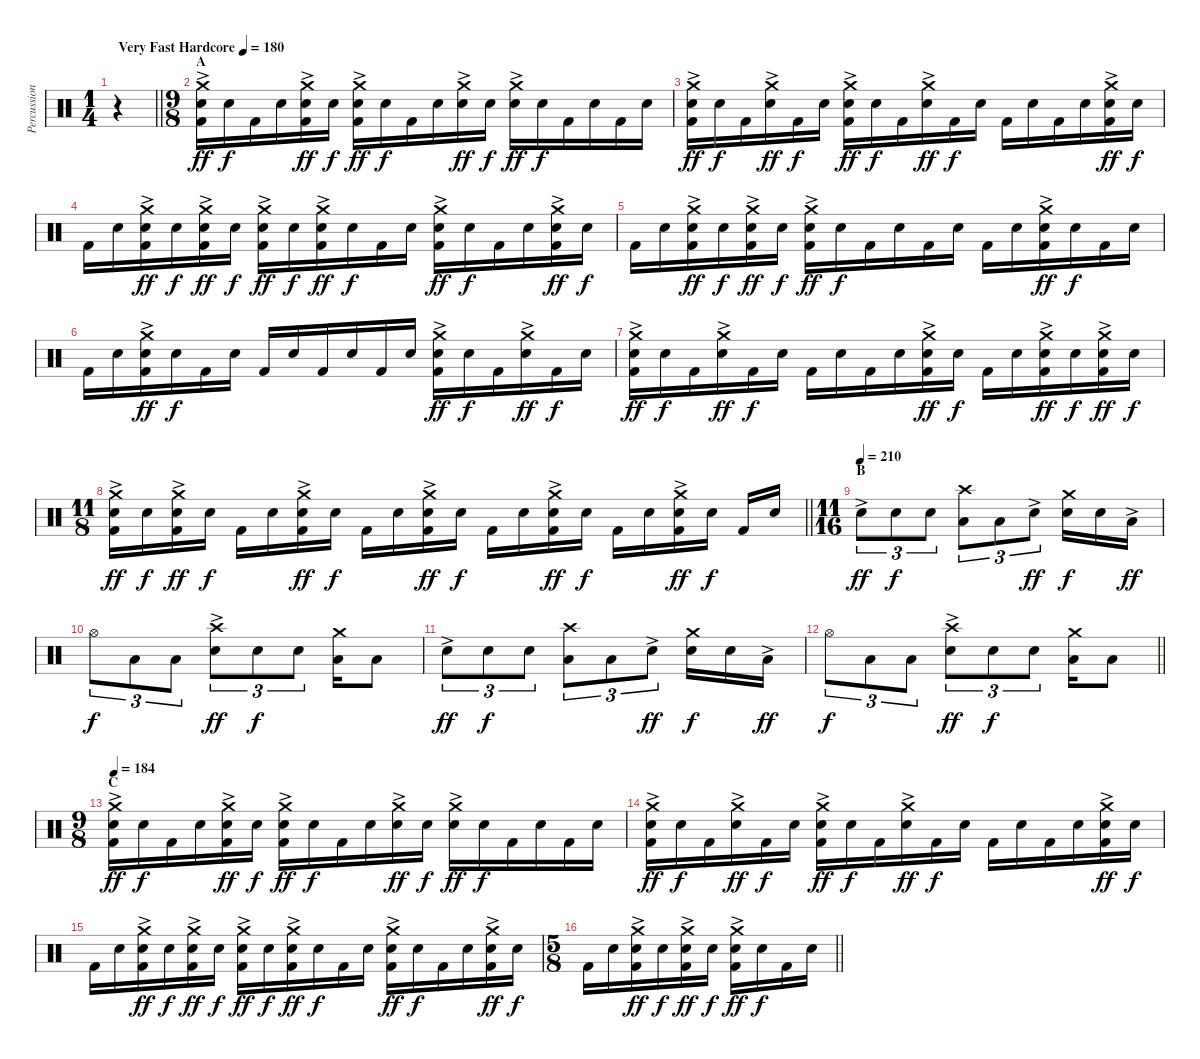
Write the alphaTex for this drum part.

\track ("Percussion" "Percussion") {instrument percussion}
\staff {score}
\articulation defaults
\ts (1 4)
\tempo (180 "Very Fast Hardcore")
\clef neutral
\barLineRight lightlight
\ks c
r.4{dy ff} |
\ts (9 8)
\section ("" "A")
("Crash medium (hit)" "Electric Snare (hit)"{ac} "Kick (hit) 2").16 "Electric Snare (hit)".16{dy f} "Kick (hit) 2".16 "Electric Snare (hit)".16 ("Crash medium (hit)" "Electric Snare (hit)"{ac} "Kick (hit) 2").16{dy ff} "Electric Snare (hit)".16{dy f} ("Crash medium (hit)" "Electric Snare (hit)"{ac} "Kick (hit) 2").16{dy ff} "Electric Snare (hit)".16{dy f} "Kick (hit) 2".16 "Electric Snare (hit)".16 ("Crash medium (hit)" "Electric Snare (hit)"{ac}).16{dy ff} "Electric Snare (hit)".16{dy f} ("Crash medium (hit)" "Electric Snare (hit)"{ac}).16{dy ff} "Electric Snare (hit)".16{dy f} "Kick (hit) 2".16 "Electric Snare (hit)".16 "Kick (hit) 2".16 "Electric Snare (hit)".16 |
("Crash medium (hit)" "Electric Snare (hit)"{ac} "Kick (hit) 2").16{dy ff} "Electric Snare (hit)".16{dy f} "Kick (hit) 2".16 ("Crash medium (hit)" "Electric Snare (hit)"{ac}).16{dy ff} "Kick (hit) 2".16{dy f} "Electric Snare (hit)".16 ("Crash medium (hit)" "Electric Snare (hit)"{ac} "Kick (hit) 2").16{dy ff} "Electric Snare (hit)".16{dy f} "Kick (hit) 2".16 ("Crash medium (hit)" "Electric Snare (hit)"{ac}).16{dy ff} "Kick (hit) 2".16{dy f} "Electric Snare (hit)".16 "Kick (hit) 2".16 "Electric Snare (hit)".16 "Kick (hit) 2".16 "Electric Snare (hit)".16 ("Crash medium (hit)" "Electric Snare (hit)"{ac} "Kick (hit) 2").16{dy ff} "Electric Snare (hit)".16{dy f} |
"Kick (hit) 2".16 "Electric Snare (hit)".16 ("Crash medium (hit)" "Electric Snare (hit)"{ac} "Kick (hit) 2").16{dy ff} "Electric Snare (hit)".16{dy f} ("Crash medium (hit)" "Electric Snare (hit)"{ac} "Kick (hit) 2").16{dy ff} "Electric Snare (hit)".16{dy f} ("Crash medium (hit)" "Electric Snare (hit)"{ac} "Kick (hit) 2").16{dy ff} "Electric Snare (hit)".16{dy f} ("Crash medium (hit)" "Electric Snare (hit)"{ac} "Kick (hit) 2").16{dy ff} "Electric Snare (hit)".16{dy f} "Kick (hit) 2".16 "Electric Snare (hit)".16 ("Crash medium (hit)" "Electric Snare (hit)"{ac} "Kick (hit) 2").16{dy ff} "Electric Snare (hit)".16{dy f} "Kick (hit) 2".16 "Electric Snare (hit)".16 ("Crash medium (hit)" "Electric Snare (hit)"{ac} "Kick (hit) 2").16{dy ff} "Electric Snare (hit)".16{dy f} |
"Kick (hit) 2".16 "Electric Snare (hit)".16 ("Crash medium (hit)" "Electric Snare (hit)"{ac} "Kick (hit) 2").16{dy ff} "Electric Snare (hit)".16{dy f} ("Crash medium (hit)" "Electric Snare (hit)"{ac} "Kick (hit) 2").16{dy ff} "Electric Snare (hit)".16{dy f} ("Crash medium (hit)" "Electric Snare (hit)"{ac} "Kick (hit) 2").16{dy ff} "Electric Snare (hit)".16{dy f} "Kick (hit) 2".16 "Electric Snare (hit)".16 "Kick (hit) 2".16 "Electric Snare (hit)".16 "Kick (hit) 2".16 "Electric Snare (hit)".16 ("Crash medium (hit)" "Electric Snare (hit)"{ac} "Kick (hit) 2").16{dy ff} "Electric Snare (hit)".16{dy f} "Kick (hit) 2".16 "Electric Snare (hit)".16 |
"Kick (hit) 2".16 "Electric Snare (hit)".16 ("Crash medium (hit)" "Electric Snare (hit)"{ac} "Kick (hit) 2").16{dy ff} "Electric Snare (hit)".16{dy f} "Kick (hit) 2".16 "Electric Snare (hit)".16 "Kick (hit) 2".16 "Electric Snare (hit)".16 "Kick (hit) 2".16 "Electric Snare (hit)".16 "Kick (hit) 2".16 "Electric Snare (hit)".16 ("Crash medium (hit)" "Electric Snare (hit)"{ac} "Kick (hit) 2").16{dy ff} "Electric Snare (hit)".16{dy f} "Kick (hit) 2".16 ("Crash medium (hit)" "Electric Snare (hit)"{ac}).16{dy ff} "Kick (hit) 2".16{dy f} "Electric Snare (hit)".16 |
("Crash medium (hit)" "Electric Snare (hit)"{ac} "Kick (hit) 2").16{dy ff} "Electric Snare (hit)".16{dy f} "Kick (hit) 2".16 ("Crash medium (hit)" "Electric Snare (hit)"{ac}).16{dy ff} "Kick (hit) 2".16{dy f} "Electric Snare (hit)".16 "Kick (hit) 2".16 "Electric Snare (hit)".16 "Kick (hit) 2".16 "Electric Snare (hit)".16 ("Crash medium (hit)" "Electric Snare (hit)"{ac} "Kick (hit) 2").16{dy ff} "Electric Snare (hit)".16{dy f} "Kick (hit) 2".16 "Electric Snare (hit)".16 ("Crash medium (hit)" "Electric Snare (hit)"{ac} "Kick (hit) 2").16{dy ff} "Electric Snare (hit)".16{dy f} ("Crash medium (hit)" "Electric Snare (hit)"{ac} "Kick (hit) 2").16{dy ff} "Electric Snare (hit)".16{dy f} |
\ts (11 8)
\barLineRight lightlight
("Crash medium (hit)" "Electric Snare (hit)"{ac} "Kick (hit) 2").16{dy ff} "Electric Snare (hit)".16{dy f} ("Crash medium (hit)" "Electric Snare (hit)"{ac} "Kick (hit) 2").16{dy ff} "Electric Snare (hit)".16{dy f} "Kick (hit) 2".16 "Electric Snare (hit)".16 ("Crash medium (hit)" "Electric Snare (hit)"{ac} "Kick (hit) 2").16{dy ff} "Electric Snare (hit)".16{dy f} "Kick (hit) 2".16 "Electric Snare (hit)".16 ("Crash medium (hit)" "Electric Snare (hit)"{ac} "Kick (hit) 2").16{dy ff} "Electric Snare (hit)".16{dy f} "Kick (hit) 2".16 "Electric Snare (hit)".16 ("Crash medium (hit)" "Electric Snare (hit)"{ac} "Kick (hit) 2").16{dy ff} "Electric Snare (hit)".16{dy f} "Kick (hit) 2".16 "Electric Snare (hit)".16 ("Crash medium (hit)" "Electric Snare (hit)"{ac} "Kick (hit) 2").16{dy ff} "Electric Snare (hit)".16{dy f} "Kick (hit) 2".16 "Electric Snare (hit)".16 |
\ts (11 16)
\section ("" "B")
\tempo (210)
"Electric Snare (hit)"{ac}.8{tu (3 2) dy ff} "Electric Snare (hit)".8{tu (3 2) dy f} "Electric Snare (hit)".8{tu (3 2)} ("Crash high (hit)" "Low Tom (hit)").8{tu (3 2)} "Low Tom (hit)".8{tu (3 2)} "Electric Snare (hit)"{ac}.8{tu (3 2) dy ff} ("Crash medium (hit)" "Electric Snare (hit)").16{dy f} "Electric Snare (hit)".16 "Low Tom (hit)"{ac}.16{dy ff} |
"Hi-Hat (open)".8{tu (3 2) dy f} "Low Tom (hit)".8{tu (3 2)} "Low Tom (hit)".8{tu (3 2)} ("Crash high (hit)" "Electric Snare (hit)"{ac}).8{tu (3 2) dy ff} "Electric Snare (hit)".8{tu (3 2) dy f} "Electric Snare (hit)".8{tu (3 2)} ("Crash medium (hit)" "Low Floor Tom (hit)").16 "Low Floor Tom (hit)".8 |
"Electric Snare (hit)"{ac}.8{tu (3 2) dy ff} "Electric Snare (hit)".8{tu (3 2) dy f} "Electric Snare (hit)".8{tu (3 2)} ("Crash high (hit)" "Low Tom (hit)").8{tu (3 2)} "Low Tom (hit)".8{tu (3 2)} "Electric Snare (hit)"{ac}.8{tu (3 2) dy ff} ("Crash medium (hit)" "Electric Snare (hit)").16{dy f} "Electric Snare (hit)".16 "Low Tom (hit)"{ac}.16{dy ff} |
\barLineRight lightlight "Hi-Hat (open)".8{tu (3 2) dy f} "Low Tom (hit)".8{tu (3 2)} "Low Tom (hit)".8{tu (3 2)}
("Crash high (hit)" "Electric Snare (hit)"{ac}).8{tu (3 2) dy ff} "Electric Snare (hit)".8{tu (3 2) dy f} "Electric Snare (hit)".8{tu (3 2)} ("Crash medium (hit)" "Low Floor Tom (hit)").16 "Low Floor Tom (hit)".8 |
\ts (9 8)
\section ("" "C")
\tempo 184
("Crash medium (hit)" "Electric Snare (hit)"{ac} "Kick (hit) 2").16{dy ff} "Electric Snare (hit)".16{dy f} "Kick (hit) 2".16 "Electric Snare (hit)".16 ("Crash medium (hit)" "Electric Snare (hit)"{ac} "Kick (hit) 2").16{dy ff} "Electric Snare (hit)".16{dy f} ("Crash medium (hit)" "Electric Snare (hit)"{ac} "Kick (hit) 2").16{dy ff} "Electric Snare (hit)".16{dy f} "Kick (hit) 2".16 "Electric Snare (hit)".16 ("Crash medium (hit)" "Electric Snare (hit)"{ac}).16{dy ff} "Electric Snare (hit)".16{dy f} ("Crash medium (hit)" "Electric Snare (hit)"{ac}).16{dy ff} "Electric Snare (hit)".16{dy f} "Kick (hit) 2".16 "Electric Snare (hit)".16 "Kick (hit) 2".16 "Electric Snare (hit)".16 |
("Crash medium (hit)" "Electric Snare (hit)"{ac} "Kick (hit) 2").16{dy ff} "Electric Snare (hit)".16{dy f} "Kick (hit) 2".16 ("Crash medium (hit)" "Electric Snare (hit)"{ac}).16{dy ff} "Kick (hit) 2".16{dy f} "Electric Snare (hit)".16 ("Crash medium (hit)" "Electric Snare (hit)"{ac} "Kick (hit) 2").16{dy ff} "Electric Snare (hit)".16{dy f} "Kick (hit) 2".16 ("Crash medium (hit)" "Electric Snare (hit)"{ac}).16{dy ff} "Kick (hit) 2".16{dy f} "Electric Snare (hit)".16 "Kick (hit) 2".16 "Electric Snare (hit)".16 "Kick (hit) 2".16 "Electric Snare (hit)".16 ("Crash medium (hit)" "Electric Snare (hit)"{ac} "Kick (hit) 2").16{dy ff} "Electric Snare (hit)".16{dy f} |
"Kick (hit) 2".16 "Electric Snare (hit)".16 ("Crash medium (hit)" "Electric Snare (hit)"{ac} "Kick (hit) 2").16{dy ff} "Electric Snare (hit)".16{dy f} ("Crash medium (hit)" "Electric Snare (hit)"{ac} "Kick (hit) 2").16{dy ff} "Electric Snare (hit)".16{dy f} ("Crash medium (hit)" "Electric Snare (hit)"{ac} "Kick (hit) 2").16{dy ff} "Electric Snare (hit)".16{dy f} ("Crash medium (hit)" "Electric Snare (hit)"{ac} "Kick (hit) 2").16{dy ff} "Electric Snare (hit)".16{dy f} "Kick (hit) 2".16 "Electric Snare (hit)".16 ("Crash medium (hit)" "Electric Snare (hit)"{ac} "Kick (hit) 2").16{dy ff} "Electric Snare (hit)".16{dy f} "Kick (hit) 2".16 "Electric Snare (hit)".16 ("Crash medium (hit)" "Electric Snare (hit)"{ac} "Kick (hit) 2").16{dy ff} "Electric Snare (hit)".16{dy f} |
\ts (5 8)
\barLineRight lightlight "Kick (hit) 2".16 "Electric Snare (hit)".16
("Crash medium (hit)" "Electric Snare (hit)"{ac} "Kick (hit) 2").16{dy ff} "Electric Snare (hit)".16{dy f} ("Crash medium (hit)" "Electric Snare (hit)"{ac} "Kick (hit) 2").16{dy ff} "Electric Snare (hit)".16{dy f} ("Crash medium (hit)" "Electric Snare (hit)"{ac} "Kick (hit) 2").16{dy ff} "Electric Snare (hit)".16{dy f} "Kick (hit) 2".16 "Electric Snare (hit)".16
